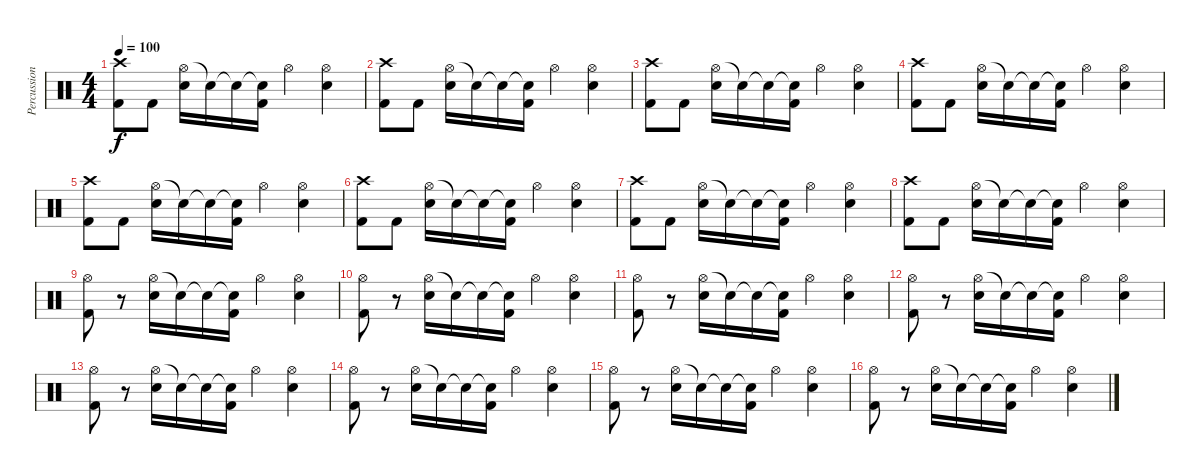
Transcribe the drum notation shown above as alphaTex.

\track ("Percussion" "Percussion") {instrument percussion}
\staff {score}
\articulation defaults
\ts (4 4)
\tempo 100
\clef neutral
\ks c
("Crash high (hit)" "Kick (hit) 2").8{dy f} "Kick (hit) 2".8 ("Hi-Hat (open)" "Snare (hit) 2").16 "Snare (hit) 2"{t}.16 "Snare (hit) 2"{t}.16 ("Snare (hit) 2"{t} "Kick (hit) 2").16 "Hi-Hat (open)".4 ("Hi-Hat (open)" "Snare (hit) 2").4 |
("Crash high (hit)" "Kick (hit) 2").8 "Kick (hit) 2".8 ("Hi-Hat (open)" "Snare (hit) 2").16 "Snare (hit) 2"{t}.16 "Snare (hit) 2"{t}.16 ("Snare (hit) 2"{t} "Kick (hit) 2").16 "Hi-Hat (open)".4 ("Hi-Hat (open)" "Snare (hit) 2").4 |
("Crash high (hit)" "Kick (hit) 2").8 "Kick (hit) 2".8 ("Hi-Hat (open)" "Snare (hit) 2").16 "Snare (hit) 2"{t}.16 "Snare (hit) 2"{t}.16 ("Snare (hit) 2"{t} "Kick (hit) 2").16 "Hi-Hat (open)".4 ("Hi-Hat (open)" "Snare (hit) 2").4 |
("Crash high (hit)" "Kick (hit) 2").8 "Kick (hit) 2".8 ("Hi-Hat (open)" "Snare (hit) 2").16 "Snare (hit) 2"{t}.16 "Snare (hit) 2"{t}.16 ("Snare (hit) 2"{t} "Kick (hit) 2").16 "Hi-Hat (open)".4 ("Hi-Hat (open)" "Snare (hit) 2").4 |
("Crash high (hit)" "Kick (hit) 2").8 "Kick (hit) 2".8 ("Hi-Hat (open)" "Snare (hit) 2").16 "Snare (hit) 2"{t}.16 "Snare (hit) 2"{t}.16 ("Snare (hit) 2"{t} "Kick (hit) 2").16 "Hi-Hat (open)".4 ("Hi-Hat (open)" "Snare (hit) 2").4 |
("Crash high (hit)" "Kick (hit) 2").8 "Kick (hit) 2".8 ("Hi-Hat (open)" "Snare (hit) 2").16 "Snare (hit) 2"{t}.16 "Snare (hit) 2"{t}.16 ("Snare (hit) 2"{t} "Kick (hit) 2").16 "Hi-Hat (open)".4 ("Hi-Hat (open)" "Snare (hit) 2").4 |
("Crash high (hit)" "Kick (hit) 2").8 "Kick (hit) 2".8 ("Hi-Hat (open)" "Snare (hit) 2").16 "Snare (hit) 2"{t}.16 "Snare (hit) 2"{t}.16 ("Snare (hit) 2"{t} "Kick (hit) 2").16 "Hi-Hat (open)".4 ("Hi-Hat (open)" "Snare (hit) 2").4 |
("Crash high (hit)" "Kick (hit) 2").8 "Kick (hit) 2".8 ("Hi-Hat (open)" "Snare (hit) 2").16 "Snare (hit) 2"{t}.16 "Snare (hit) 2"{t}.16 ("Snare (hit) 2"{t} "Kick (hit) 2").16 "Hi-Hat (open)".4 ("Hi-Hat (open)" "Snare (hit) 2").4 |
("Hi-Hat (open)" "Kick (hit) 2").8 r.8 ("Hi-Hat (open)" "Snare (hit) 2").16 "Snare (hit) 2"{t}.16 "Snare (hit) 2"{t}.16 ("Snare (hit) 2"{t} "Kick (hit) 2").16 "Hi-Hat (open)".4 ("Hi-Hat (open)" "Snare (hit) 2").4 |
("Hi-Hat (open)" "Kick (hit) 2").8 r.8 ("Hi-Hat (open)" "Snare (hit) 2").16 "Snare (hit) 2"{t}.16 "Snare (hit) 2"{t}.16 ("Snare (hit) 2"{t} "Kick (hit) 2").16 "Hi-Hat (open)".4 ("Hi-Hat (open)" "Snare (hit) 2").4 |
("Hi-Hat (open)" "Kick (hit) 2").8 r.8 ("Hi-Hat (open)" "Snare (hit) 2").16 "Snare (hit) 2"{t}.16 "Snare (hit) 2"{t}.16 ("Snare (hit) 2"{t} "Kick (hit) 2").16 "Hi-Hat (open)".4 ("Hi-Hat (open)" "Snare (hit) 2").4 |
("Hi-Hat (open)" "Kick (hit) 2").8 r.8 ("Hi-Hat (open)" "Snare (hit) 2").16 "Snare (hit) 2"{t}.16 "Snare (hit) 2"{t}.16 ("Snare (hit) 2"{t} "Kick (hit) 2").16 "Hi-Hat (open)".4 ("Hi-Hat (open)" "Snare (hit) 2").4 |
("Hi-Hat (open)" "Kick (hit) 2").8 r.8 ("Hi-Hat (open)" "Snare (hit) 2").16 "Snare (hit) 2"{t}.16 "Snare (hit) 2"{t}.16 ("Snare (hit) 2"{t} "Kick (hit) 2").16 "Hi-Hat (open)".4 ("Hi-Hat (open)" "Snare (hit) 2").4 |
("Hi-Hat (open)" "Kick (hit) 2").8 r.8 ("Hi-Hat (open)" "Snare (hit) 2").16 "Snare (hit) 2"{t}.16 "Snare (hit) 2"{t}.16 ("Snare (hit) 2"{t} "Kick (hit) 2").16 "Hi-Hat (open)".4 ("Hi-Hat (open)" "Snare (hit) 2").4 |
("Hi-Hat (open)" "Kick (hit) 2").8 r.8 ("Hi-Hat (open)" "Snare (hit) 2").16 "Snare (hit) 2"{t}.16 "Snare (hit) 2"{t}.16 ("Snare (hit) 2"{t} "Kick (hit) 2").16 "Hi-Hat (open)".4 ("Hi-Hat (open)" "Snare (hit) 2").4 |
("Hi-Hat (open)" "Kick (hit) 2").8 r.8 ("Hi-Hat (open)" "Snare (hit) 2").16 "Snare (hit) 2"{t}.16 "Snare (hit) 2"{t}.16 ("Snare (hit) 2"{t} "Kick (hit) 2").16 "Hi-Hat (open)".4 ("Hi-Hat (open)" "Snare (hit) 2").4
